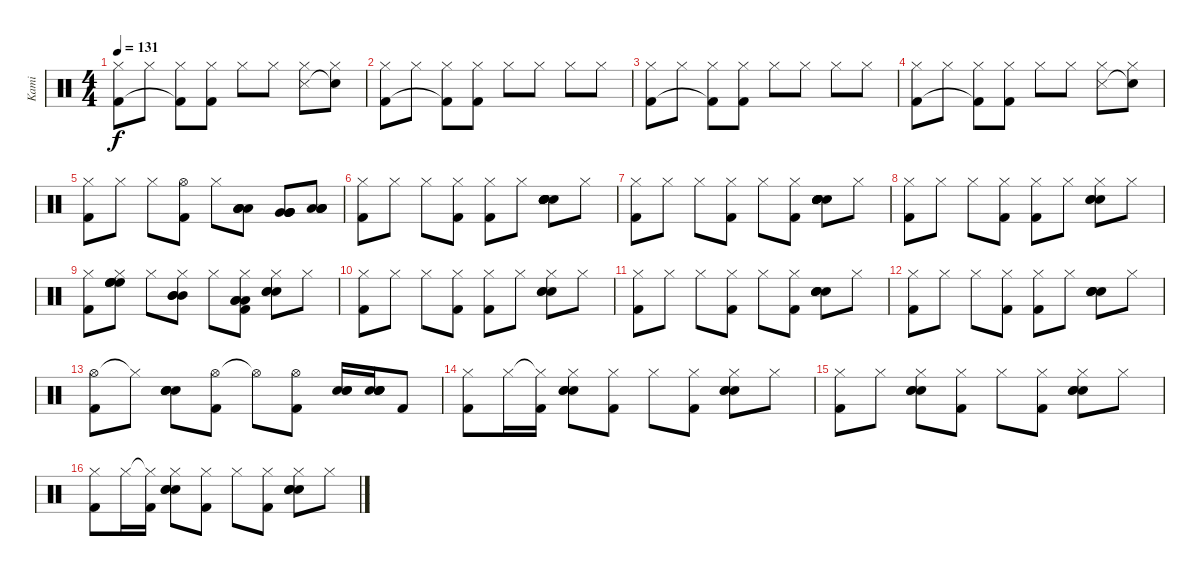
\track ("Kami" "Kami") {instrument percussion}
\staff {score}
\articulation defaults
\ts (4 4)
\tempo 131
\clef neutral
\ks c
("Hi-Hat (closed)" "Kick (hit) 2").8{dy f} "Hi-Hat (closed)".8 ("Hi-Hat (closed)" "Kick (hit) 2"{t}).8 ("Hi-Hat (closed)" "Kick (hit) 2").8 "Hi-Hat (closed)".8 "Hi-Hat (closed)".8 ("Hi-Hat (closed)" "Snare (side stick) 3").8 ("Hi-Hat (closed)" "Snare (hit)"{t}).8 |
("Hi-Hat (closed)" "Kick (hit) 2").8 "Hi-Hat (closed)".8 ("Hi-Hat (closed)" "Kick (hit) 2"{t}).8 ("Hi-Hat (closed)" "Kick (hit) 2").8 "Hi-Hat (closed)".8 "Hi-Hat (closed)".8 "Hi-Hat (closed)".8 "Hi-Hat (closed)".8 |
("Hi-Hat (closed)" "Kick (hit) 2").8 "Hi-Hat (closed)".8 ("Hi-Hat (closed)" "Kick (hit) 2"{t}).8 ("Hi-Hat (closed)" "Kick (hit) 2").8 "Hi-Hat (closed)".8 "Hi-Hat (closed)".8 "Hi-Hat (closed)".8 "Hi-Hat (closed)".8 |
("Hi-Hat (closed)" "Kick (hit) 2").8 "Hi-Hat (closed)".8 ("Hi-Hat (closed)" "Kick (hit) 2"{t}).8 ("Hi-Hat (closed)" "Kick (hit) 2").8 "Hi-Hat (closed)".8 "Hi-Hat (closed)".8 ("Hi-Hat (closed)" "Snare (side stick) 3").8 ("Hi-Hat (closed)" "Snare (hit)"{t}).8 |
("Hi-Hat (closed)" "Kick (hit) 2").8 "Hi-Hat (closed)".8 "Hi-Hat (closed)".8 ("Hi-Hat (open)" "Kick (hit) 2").8 "Hi-Hat (closed)".8 ("Low Tom (hit)" "Low Tom (hit)" "Low Tom (hit)" "Low Tom (hit)").8 ("Very Low Tom (hit)" "Very Low Tom (hit)" "Very Low Tom (hit)" "Very Low Tom (hit)").8 ("Low Floor Tom (hit)" "Low Floor Tom (hit)" "Low Floor Tom (hit)" "Low Floor Tom (hit)").8 |
("Hi-Hat (closed)" "Kick (hit) 2").8 "Hi-Hat (closed)".8 "Hi-Hat (closed)".8 ("Hi-Hat (closed)" "Kick (hit) 2").8 ("Hi-Hat (closed)" "Kick (hit) 2").8 "Hi-Hat (closed)".8 ("Electric Snare (hit)" "Electric Snare (hit)" "Electric Snare (hit)" "Electric Snare (hit)" "Electric Snare (hit)" "Electric Snare (hit)").8 "Hi-Hat (closed)".8 |
("Hi-Hat (closed)" "Kick (hit) 2").8 "Hi-Hat (closed)".8 "Hi-Hat (closed)".8 ("Hi-Hat (closed)" "Kick (hit) 2").8 "Hi-Hat (closed)".8 ("Hi-Hat (closed)" "Kick (hit) 2").8 ("Electric Snare (hit)" "Electric Snare (hit)" "Electric Snare (hit)" "Electric Snare (hit)" "Electric Snare (hit)" "Electric Snare (hit)").8 "Hi-Hat (closed)".8 |
("Hi-Hat (closed)" "Kick (hit) 2").8 "Hi-Hat (closed)".8 "Hi-Hat (closed)".8 ("Hi-Hat (closed)" "Kick (hit) 2").8 ("Hi-Hat (closed)" "Kick (hit) 2").8 "Hi-Hat (closed)".8 ("Electric Snare (hit)" "Electric Snare (hit)" "Hi-Hat (closed)" "Electric Snare (hit)").8 "Hi-Hat (closed)".8 |
("Hi-Hat (closed)" "Kick (hit) 2").8 ("High Floor Tom (hit)" "High Floor Tom (hit)" "Hi-Hat (closed)" "High Floor Tom (hit)" "High Floor Tom (hit)").8 "Hi-Hat (closed)".8 ("Mid Tom (hit)" "Mid Tom (hit)" "Hi-Hat (closed)" "Mid Tom (hit)").8 "Hi-Hat (closed)".8 ("Low Tom (hit)" "Low Tom (hit)" "Hi-Hat (closed)" "Kick (hit) 2" "Low Tom (hit)").8 ("Electric Snare (hit)" "Electric Snare (hit)" "Hi-Hat (closed)" "Electric Snare (hit)").8 "Hi-Hat (closed)".8 |
("Hi-Hat (closed)" "Kick (hit) 2").8 "Hi-Hat (closed)".8 "Hi-Hat (closed)".8 ("Hi-Hat (closed)" "Kick (hit) 2").8 ("Hi-Hat (closed)" "Kick (hit) 2").8 "Hi-Hat (closed)".8 ("Electric Snare (hit)" "Electric Snare (hit)" "Hi-Hat (closed)" "Electric Snare (hit)").8 "Hi-Hat (closed)".8 |
("Hi-Hat (closed)" "Kick (hit) 2").8 "Hi-Hat (closed)".8 "Hi-Hat (closed)".8 ("Hi-Hat (closed)" "Kick (hit) 2").8 "Hi-Hat (closed)".8 ("Hi-Hat (closed)" "Kick (hit) 2").8 ("Electric Snare (hit)" "Electric Snare (hit)" "Electric Snare (hit)" "Electric Snare (hit)").8 "Hi-Hat (closed)".8 |
("Hi-Hat (closed)" "Kick (hit) 2").8 "Hi-Hat (closed)".8 "Hi-Hat (closed)".8 ("Hi-Hat (closed)" "Kick (hit) 2").8 ("Hi-Hat (closed)" "Kick (hit) 2").8 "Hi-Hat (closed)".8 ("Electric Snare (hit)" "Electric Snare (hit)" "Electric Snare (hit)" "Electric Snare (hit)").8 "Hi-Hat (closed)".8 |
("Hi-Hat (open)" "Kick (hit) 2").8 "Hi-Hat (closed)"{t}.8 ("Electric Snare (hit)" "Electric Snare (hit)" "Electric Snare (hit)" "Electric Snare (hit)").8 ("Hi-Hat (open)" "Kick (hit) 2").8 "Hi-Hat (open)"{t}.8 ("Hi-Hat (open)" "Kick (hit) 2").8 ("Electric Snare (hit)" "Electric Snare (hit)" "Electric Snare (hit)").16 ("Electric Snare (hit)" "Electric Snare (hit)" "Electric Snare (hit)" "Electric Snare (hit)").16 "Kick (hit) 2".8 |
("Hi-Hat (closed)" "Kick (hit) 2").8 "Hi-Hat (closed)".16 ("Hi-Hat (closed)"{t} "Kick (hit) 2").16 ("Electric Snare (hit)" "Hi-Hat (closed)" "Electric Snare (hit)" "Electric Snare (hit)").8 ("Hi-Hat (closed)" "Kick (hit) 2").8 "Hi-Hat (closed)".8 ("Hi-Hat (closed)" "Kick (hit) 2").8 ("Electric Snare (hit)" "Hi-Hat (closed)" "Electric Snare (hit)" "Electric Snare (hit)").8 "Hi-Hat (closed)".8 |
("Hi-Hat (closed)" "Kick (hit) 2").8 "Hi-Hat (closed)".8 ("Electric Snare (hit)" "Hi-Hat (closed)" "Electric Snare (hit)" "Electric Snare (hit)").8 ("Hi-Hat (closed)" "Kick (hit) 2").8 "Hi-Hat (closed)".8 ("Hi-Hat (closed)" "Kick (hit) 2").8 ("Electric Snare (hit)" "Hi-Hat (closed)" "Electric Snare (hit)" "Electric Snare (hit)").8 "Hi-Hat (closed)".8 |
("Hi-Hat (closed)" "Kick (hit) 2").8 "Hi-Hat (closed)".16 ("Hi-Hat (closed)"{t} "Kick (hit) 2").16 ("Electric Snare (hit)" "Hi-Hat (closed)" "Electric Snare (hit)" "Electric Snare (hit)").8 ("Hi-Hat (closed)" "Kick (hit) 2").8 "Hi-Hat (closed)".8 ("Hi-Hat (closed)" "Kick (hit) 2").8 ("Electric Snare (hit)" "Hi-Hat (closed)" "Electric Snare (hit)" "Electric Snare (hit)").8 "Hi-Hat (closed)".8
